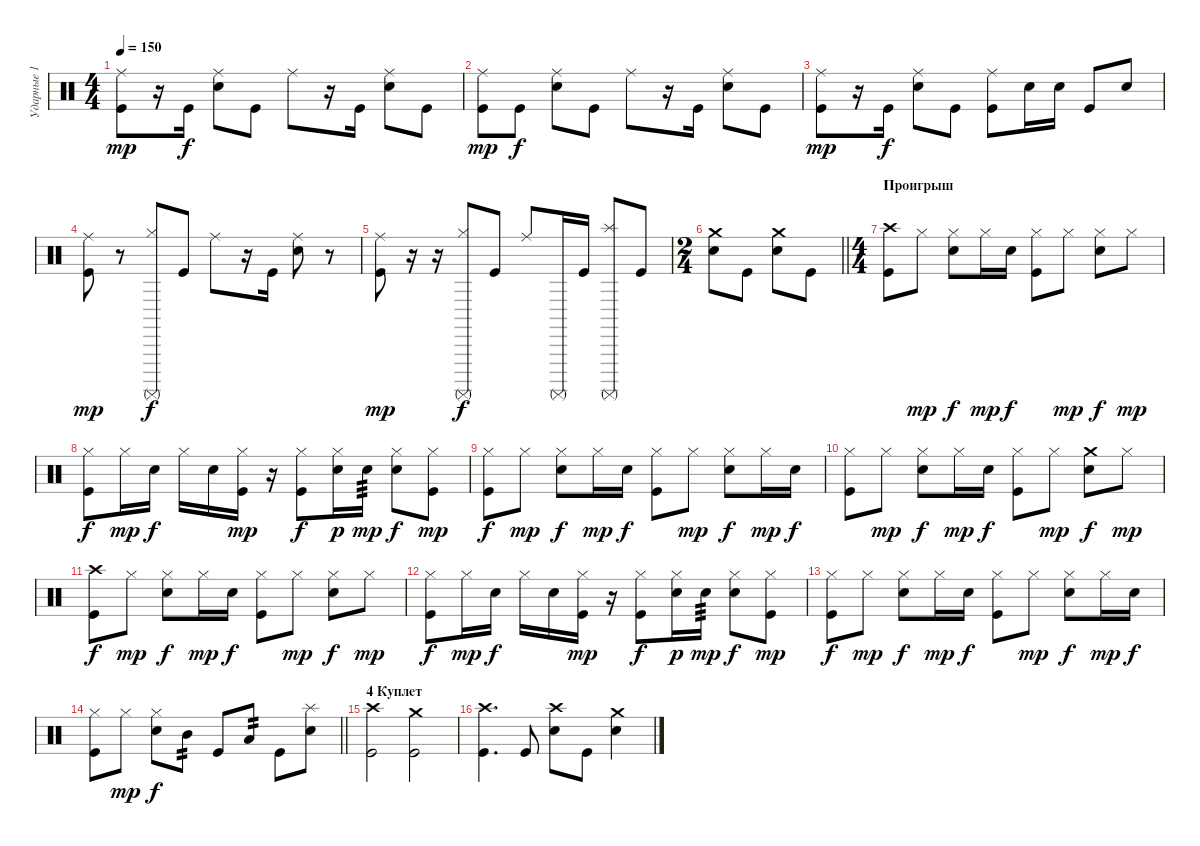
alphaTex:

\track ("Ударные 1" "Ударные 1") {instrument percussion}
\staff {score}
\articulation defaults
\ts (4 4)
\tempo 150
\clef neutral
\ks c
("Ride (middle)" "Kick (hit)").8{dy mp} r.16 "Kick (hit)".16{dy f} ("Ride (middle)" "Snare (hit) 2").8 "Kick (hit)".8 "Ride (middle)".8 r.16 "Kick (hit)".16 ("Ride (middle)" "Snare (hit) 2").8 "Kick (hit)".8 |
("Ride (middle)" "Kick (hit)").8{dy mp} "Kick (hit)".8{dy f} ("Ride (middle)" "Snare (hit) 2").8 "Kick (hit)".8 "Ride (middle)".8 r.16 "Kick (hit)".16 ("Ride (middle)" "Snare (hit) 2").8 "Kick (hit)".8 |
("Ride (middle)" "Kick (hit)").8{dy mp} r.16 "Kick (hit)".16{dy f} ("Ride (middle)" "Snare (hit) 2").8 "Kick (hit)".8 ("Ride (middle)" "Kick (hit)").8 "Snare (hit) 2".16 "Snare (hit) 2".16 "Kick (hit)".8 "Snare (hit) 2".8 |
("Ride (middle)" "Kick (hit)").8{dy mp} r.8 ("Hi-Hat (closed)" "Surdo (mute)").8{dy f} "Kick (hit)".8 "Ride (middle)".8 r.16 "Kick (hit)".16 ("Ride (middle)" "Snare (hit) 2").8 r.8 |
("Ride (middle)" "Kick (hit)").8{dy mp} r.16 r.16 ("Hi-Hat (closed)" "Surdo (mute)").8{dy f} "Kick (hit)".8 "Ride (middle)".8 "Surdo (mute)".16 "Kick (hit)".16 ("Splash (hit)" "Surdo (mute)").8 "Kick (hit)".8 |
\ts (2 4)
\barLineRight lightlight
("Crash medium (hit)" "Electric Snare (hit)").8 "Kick (hit)".8 ("Crash medium (hit)" "Electric Snare (hit)").8 "Kick (hit)".8 |
\ts (4 4)
\section ("" "Проигрыш")
("Crash high (hit)" "Kick (hit)").8 "Hi-Hat (closed)".8{dy mp} ("Hi-Hat (closed)" "Snare (hit) 2").8{dy f} "Hi-Hat (closed)".16{dy mp} "Snare (hit) 2".16{dy f} ("Hi-Hat (closed)" "Kick (hit)").8 "Hi-Hat (closed)".8{dy mp} ("Hi-Hat (closed)" "Snare (hit) 2").8{dy f} "Hi-Hat (closed)".8{dy mp} |
("Hi-Hat (closed)" "Kick (hit)").8{dy f} "Hi-Hat (closed)".16{dy mp} "Snare (hit) 2".16{dy f} "Hi-Hat (closed)".16 "Snare (hit) 2".16 ("Hi-Hat (closed)" "Kick (hit)").16{dy mp} r.16 ("Hi-Hat (closed)" "Kick (hit)").8{dy f} ("Hi-Hat (closed)" "Snare (hit) 2").16{dy p} "Snare (hit) 2".16{tp 3 dy mp} ("Hi-Hat (closed)" "Snare (hit) 2").8{dy f} ("Hi-Hat (closed)" "Kick (hit)").8{dy mp} |
("Hi-Hat (closed)" "Kick (hit)").8{dy f} "Hi-Hat (closed)".8{dy mp} ("Hi-Hat (closed)" "Snare (hit) 2").8{dy f} "Hi-Hat (closed)".16{dy mp} "Snare (hit) 2".16{dy f} ("Hi-Hat (closed)" "Kick (hit)").8 "Hi-Hat (closed)".8{dy mp} ("Hi-Hat (closed)" "Snare (hit) 2").8{dy f} "Hi-Hat (closed)".16{dy mp} "Snare (hit) 2".16{dy f} |
("Hi-Hat (closed)" "Kick (hit)").8 "Hi-Hat (closed)".8{dy mp} ("Hi-Hat (closed)" "Snare (hit) 2").8{dy f} "Hi-Hat (closed)".16{dy mp} "Snare (hit) 2".16{dy f} ("Hi-Hat (closed)" "Kick (hit)").8 "Hi-Hat (closed)".8{dy mp} ("Crash medium (hit)" "Snare (hit) 2").8{dy f} "Hi-Hat (closed)".8{dy mp} |
("Crash high (hit)" "Kick (hit)").8{dy f} "Hi-Hat (closed)".8{dy mp} ("Hi-Hat (closed)" "Snare (hit) 2").8{dy f} "Hi-Hat (closed)".16{dy mp} "Snare (hit) 2".16{dy f} ("Hi-Hat (closed)" "Kick (hit)").8 "Hi-Hat (closed)".8{dy mp} ("Hi-Hat (closed)" "Snare (hit) 2").8{dy f} "Hi-Hat (closed)".8{dy mp} |
("Hi-Hat (closed)" "Kick (hit)").8{dy f} "Hi-Hat (closed)".16{dy mp} "Snare (hit) 2".16{dy f} "Hi-Hat (closed)".16 "Snare (hit) 2".16 ("Hi-Hat (closed)" "Kick (hit)").16{dy mp} r.16 ("Hi-Hat (closed)" "Kick (hit)").8{dy f} ("Hi-Hat (closed)" "Snare (hit) 2").16{dy p} "Snare (hit) 2".16{tp 3 dy mp} ("Hi-Hat (closed)" "Snare (hit) 2").8{dy f} ("Hi-Hat (closed)" "Kick (hit)").8{dy mp} |
("Hi-Hat (closed)" "Kick (hit)").8{dy f} "Hi-Hat (closed)".8{dy mp} ("Hi-Hat (closed)" "Snare (hit) 2").8{dy f} "Hi-Hat (closed)".16{dy mp} "Snare (hit) 2".16{dy f} ("Hi-Hat (closed)" "Kick (hit)").8 "Hi-Hat (closed)".8{dy mp} ("Hi-Hat (closed)" "Snare (hit) 2").8{dy f} "Hi-Hat (closed)".16{dy mp} "Snare (hit) 2".16{dy f} |
\barLineRight lightlight
("Hi-Hat (closed)" "Kick (hit)").8 "Hi-Hat (closed)".8{dy mp} ("Hi-Hat (closed)" "Snare (hit) 2").8{dy f} "Mid Tom (hit)".8{tp 2} "Kick (hit)".8 "Low Tom (hit)".8{tp 2} "Kick (hit)".8 ("Splash (hit)" "Snare (hit) 2").8 |
\section ("" "4 Куплет")
("Crash high (hit)" "Kick (hit)").2 ("Crash medium (hit)" "Kick (hit)").2 |
("Crash high (hit)" "Kick (hit)").4{d} "Kick (hit)".8 ("Crash high (hit)" "Electric Snare (hit)").8 "Kick (hit)".8 ("Crash medium (hit)" "Electric Snare (hit)").4
